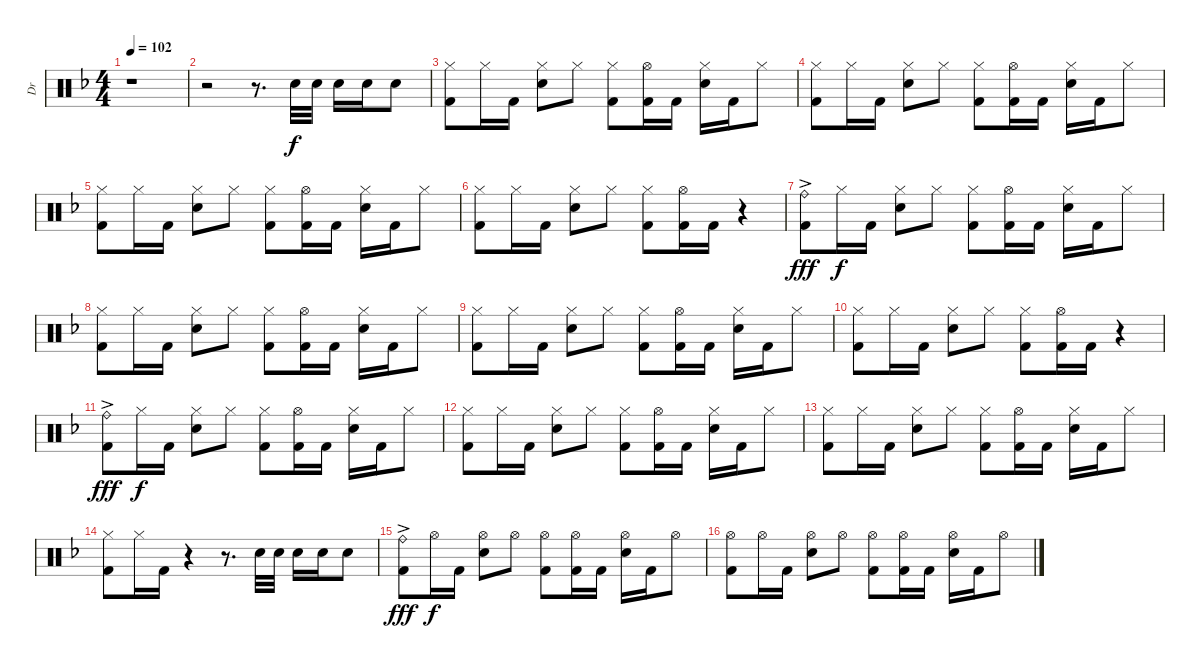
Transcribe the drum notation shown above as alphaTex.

\track ("Dr" "Dr") {instrument percussion}
\staff {score}
\articulation defaults
\ts (4 4)
\tempo 102
\clef neutral
\ks f
r.1{dy f} |
r.2 r.8{d} "Electric Snare (hit)".32 "Electric Snare (hit)".32 "Electric Snare (hit)".16 "Electric Snare (hit)".16 "Electric Snare (hit)".8 |
("Hi-Hat (closed)" "Kick (hit) 2").8 "Hi-Hat (closed)".16 "Kick (hit) 2".16 ("Hi-Hat (closed)" "Electric Snare (hit)").8 "Hi-Hat (closed)".8 ("Hi-Hat (closed)" "Kick (hit) 2").8 ("Hi-Hat (open)" "Kick (hit) 2").16 "Kick (hit) 2".16 ("Hi-Hat (closed)" "Electric Snare (hit)").16 "Kick (hit) 2".16 "Hi-Hat (closed)".8 |
("Hi-Hat (closed)" "Kick (hit) 2").8 "Hi-Hat (closed)".16 "Kick (hit) 2".16 ("Hi-Hat (closed)" "Electric Snare (hit)").8 "Hi-Hat (closed)".8 ("Hi-Hat (closed)" "Kick (hit) 2").8 ("Hi-Hat (open)" "Kick (hit) 2").16 "Kick (hit) 2".16 ("Hi-Hat (closed)" "Electric Snare (hit)").16 "Kick (hit) 2".16 "Hi-Hat (closed)".8 |
("Hi-Hat (closed)" "Kick (hit) 2").8 "Hi-Hat (closed)".16 "Kick (hit) 2".16 ("Hi-Hat (closed)" "Electric Snare (hit)").8 "Hi-Hat (closed)".8 ("Hi-Hat (closed)" "Kick (hit) 2").8 ("Hi-Hat (open)" "Kick (hit) 2").16 "Kick (hit) 2".16 ("Hi-Hat (closed)" "Electric Snare (hit)").16 "Kick (hit) 2".16 "Hi-Hat (closed)".8 |
("Hi-Hat (closed)" "Kick (hit) 2").8 "Hi-Hat (closed)".16 "Kick (hit) 2".16 ("Hi-Hat (closed)" "Electric Snare (hit)").8 "Hi-Hat (closed)".8 ("Hi-Hat (closed)" "Kick (hit) 2").8 ("Hi-Hat (open)" "Kick (hit) 2").16 "Kick (hit) 2".16 r.4 |
("Ride (bell)"{ac} "Kick (hit) 2"{ac}).8{dy fff} "Hi-Hat (closed)".16{dy f} "Kick (hit) 2".16 ("Hi-Hat (closed)" "Electric Snare (hit)").8 "Hi-Hat (closed)".8 ("Hi-Hat (closed)" "Kick (hit) 2").8 ("Hi-Hat (open)" "Kick (hit) 2").16 "Kick (hit) 2".16 ("Hi-Hat (closed)" "Electric Snare (hit)").16 "Kick (hit) 2".16 "Hi-Hat (closed)".8 |
("Hi-Hat (closed)" "Kick (hit) 2").8 "Hi-Hat (closed)".16 "Kick (hit) 2".16 ("Hi-Hat (closed)" "Electric Snare (hit)").8 "Hi-Hat (closed)".8 ("Hi-Hat (closed)" "Kick (hit) 2").8 ("Hi-Hat (open)" "Kick (hit) 2").16 "Kick (hit) 2".16 ("Hi-Hat (closed)" "Electric Snare (hit)").16 "Kick (hit) 2".16 "Hi-Hat (closed)".8 |
("Hi-Hat (closed)" "Kick (hit) 2").8 "Hi-Hat (closed)".16 "Kick (hit) 2".16 ("Hi-Hat (closed)" "Electric Snare (hit)").8 "Hi-Hat (closed)".8 ("Hi-Hat (closed)" "Kick (hit) 2").8 ("Hi-Hat (open)" "Kick (hit) 2").16 "Kick (hit) 2".16 ("Hi-Hat (closed)" "Electric Snare (hit)").16 "Kick (hit) 2".16 "Hi-Hat (closed)".8 |
("Hi-Hat (closed)" "Kick (hit) 2").8 "Hi-Hat (closed)".16 "Kick (hit) 2".16 ("Hi-Hat (closed)" "Electric Snare (hit)").8 "Hi-Hat (closed)".8 ("Hi-Hat (closed)" "Kick (hit) 2").8 ("Hi-Hat (open)" "Kick (hit) 2").16 "Kick (hit) 2".16 r.4 |
("Ride (bell)"{ac} "Kick (hit) 2"{ac}).8{dy fff} "Hi-Hat (closed)".16{dy f} "Kick (hit) 2".16 ("Hi-Hat (closed)" "Electric Snare (hit)").8 "Hi-Hat (closed)".8 ("Hi-Hat (closed)" "Kick (hit) 2").8 ("Hi-Hat (open)" "Kick (hit) 2").16 "Kick (hit) 2".16 ("Hi-Hat (closed)" "Electric Snare (hit)").16 "Kick (hit) 2".16 "Hi-Hat (closed)".8 |
("Hi-Hat (closed)" "Kick (hit) 2").8 "Hi-Hat (closed)".16 "Kick (hit) 2".16 ("Hi-Hat (closed)" "Electric Snare (hit)").8 "Hi-Hat (closed)".8 ("Hi-Hat (closed)" "Kick (hit) 2").8 ("Hi-Hat (open)" "Kick (hit) 2").16 "Kick (hit) 2".16 ("Hi-Hat (closed)" "Electric Snare (hit)").16 "Kick (hit) 2".16 "Hi-Hat (closed)".8 |
("Hi-Hat (closed)" "Kick (hit) 2").8 "Hi-Hat (closed)".16 "Kick (hit) 2".16 ("Hi-Hat (closed)" "Electric Snare (hit)").8 "Hi-Hat (closed)".8 ("Hi-Hat (closed)" "Kick (hit) 2").8 ("Hi-Hat (open)" "Kick (hit) 2").16 "Kick (hit) 2".16 ("Hi-Hat (closed)" "Electric Snare (hit)").16 "Kick (hit) 2".16 "Hi-Hat (closed)".8 |
("Hi-Hat (closed)" "Kick (hit) 2").8 "Hi-Hat (closed)".16 "Kick (hit) 2".16 r.4 r.8{d} "Electric Snare (hit)".32 "Electric Snare (hit)".32 "Electric Snare (hit)".16 "Electric Snare (hit)".16 "Electric Snare (hit)".8 |
("Ride (bell)"{ac} "Kick (hit) 2"{ac}).8{dy fff} "Hi-Hat (open)".16{dy f} "Kick (hit) 2".16 ("Hi-Hat (open)" "Electric Snare (hit)").8 "Hi-Hat (open)".8 ("Hi-Hat (open)" "Kick (hit) 2").8 ("Hi-Hat (open)" "Kick (hit) 2").16 "Kick (hit) 2".16 ("Hi-Hat (open)" "Electric Snare (hit)").16 "Kick (hit) 2".16 "Hi-Hat (open)".8 |
("Hi-Hat (open)" "Kick (hit) 2").8 "Hi-Hat (open)".16 "Kick (hit) 2".16 ("Hi-Hat (open)" "Electric Snare (hit)").8 "Hi-Hat (open)".8 ("Hi-Hat (open)" "Kick (hit) 2").8 ("Hi-Hat (open)" "Kick (hit) 2").16 "Kick (hit) 2".16 ("Hi-Hat (open)" "Electric Snare (hit)").16 "Kick (hit) 2".16 "Hi-Hat (open)".8
